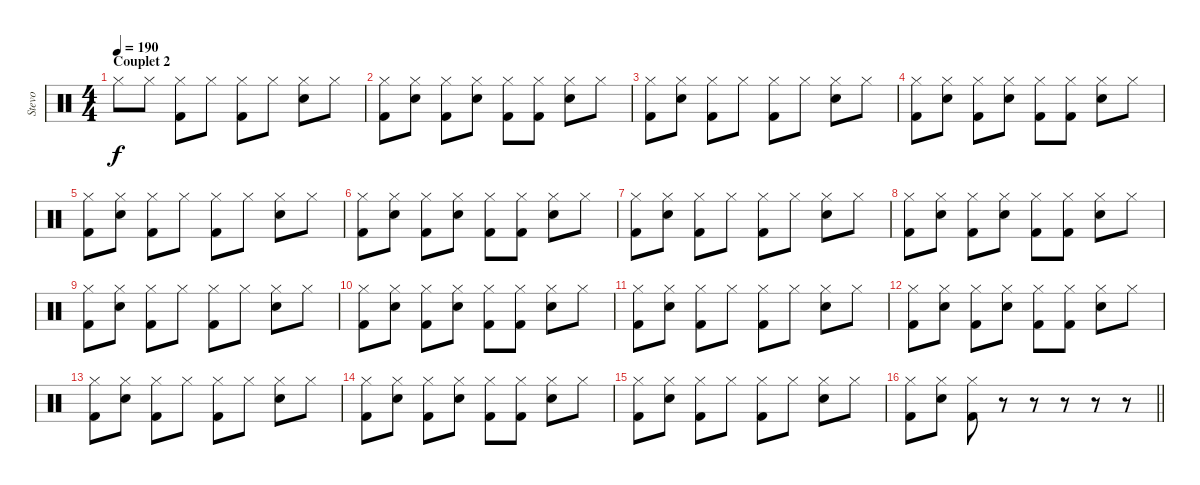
\track ("Stevo" "Stevo") {instrument percussion}
\staff {score}
\articulation defaults
\ts (4 4)
\section ("" "Couplet 2")
\tempo 190
\clef neutral
\ks c "Hi-Hat (closed)".8{dy f} "Hi-Hat (closed)".8
("Hi-Hat (closed)" "Kick (hit) 2").8 "Hi-Hat (closed)".8 ("Hi-Hat (closed)" "Kick (hit) 2").8 "Hi-Hat (closed)".8 ("Hi-Hat (closed)" "Electric Snare (hit)").8 "Hi-Hat (closed)".8 |
("Hi-Hat (closed)" "Kick (hit) 2").8 ("Hi-Hat (closed)" "Electric Snare (hit)").8 ("Hi-Hat (closed)" "Kick (hit) 2").8 ("Hi-Hat (closed)" "Electric Snare (hit)").8 ("Hi-Hat (closed)" "Kick (hit) 2").8 ("Hi-Hat (closed)" "Kick (hit) 2").8 ("Hi-Hat (closed)" "Electric Snare (hit)").8 "Hi-Hat (closed)".8 |
("Hi-Hat (closed)" "Kick (hit) 2").8 ("Hi-Hat (closed)" "Electric Snare (hit)").8 ("Hi-Hat (closed)" "Kick (hit) 2").8 "Hi-Hat (closed)".8 ("Hi-Hat (closed)" "Kick (hit) 2").8 "Hi-Hat (closed)".8 ("Hi-Hat (closed)" "Electric Snare (hit)").8 "Hi-Hat (closed)".8 |
("Hi-Hat (closed)" "Kick (hit) 2").8 ("Hi-Hat (closed)" "Electric Snare (hit)").8 ("Hi-Hat (closed)" "Kick (hit) 2").8 ("Hi-Hat (closed)" "Electric Snare (hit)").8 ("Hi-Hat (closed)" "Kick (hit) 2").8 ("Hi-Hat (closed)" "Kick (hit) 2").8 ("Hi-Hat (closed)" "Electric Snare (hit)").8 "Hi-Hat (closed)".8 |
("Hi-Hat (closed)" "Kick (hit) 2").8 ("Hi-Hat (closed)" "Electric Snare (hit)").8 ("Hi-Hat (closed)" "Kick (hit) 2").8 "Hi-Hat (closed)".8 ("Hi-Hat (closed)" "Kick (hit) 2").8 "Hi-Hat (closed)".8 ("Hi-Hat (closed)" "Electric Snare (hit)").8 "Hi-Hat (closed)".8 |
("Hi-Hat (closed)" "Kick (hit) 2").8 ("Hi-Hat (closed)" "Electric Snare (hit)").8 ("Hi-Hat (closed)" "Kick (hit) 2").8 ("Hi-Hat (closed)" "Electric Snare (hit)").8 ("Hi-Hat (closed)" "Kick (hit) 2").8 ("Hi-Hat (closed)" "Kick (hit) 2").8 ("Hi-Hat (closed)" "Electric Snare (hit)").8 "Hi-Hat (closed)".8 |
("Hi-Hat (closed)" "Kick (hit) 2").8 ("Hi-Hat (closed)" "Electric Snare (hit)").8 ("Hi-Hat (closed)" "Kick (hit) 2").8 "Hi-Hat (closed)".8 ("Hi-Hat (closed)" "Kick (hit) 2").8 "Hi-Hat (closed)".8 ("Hi-Hat (closed)" "Electric Snare (hit)").8 "Hi-Hat (closed)".8 |
("Hi-Hat (closed)" "Kick (hit) 2").8 ("Hi-Hat (closed)" "Electric Snare (hit)").8 ("Hi-Hat (closed)" "Kick (hit) 2").8 ("Hi-Hat (closed)" "Electric Snare (hit)").8 ("Hi-Hat (closed)" "Kick (hit) 2").8 ("Hi-Hat (closed)" "Kick (hit) 2").8 ("Hi-Hat (closed)" "Electric Snare (hit)").8 "Hi-Hat (closed)".8 |
("Hi-Hat (closed)" "Kick (hit) 2").8 ("Hi-Hat (closed)" "Electric Snare (hit)").8 ("Hi-Hat (closed)" "Kick (hit) 2").8 "Hi-Hat (closed)".8 ("Hi-Hat (closed)" "Kick (hit) 2").8 "Hi-Hat (closed)".8 ("Hi-Hat (closed)" "Electric Snare (hit)").8 "Hi-Hat (closed)".8 |
("Hi-Hat (closed)" "Kick (hit) 2").8 ("Hi-Hat (closed)" "Electric Snare (hit)").8 ("Hi-Hat (closed)" "Kick (hit) 2").8 ("Hi-Hat (closed)" "Electric Snare (hit)").8 ("Hi-Hat (closed)" "Kick (hit) 2").8 ("Hi-Hat (closed)" "Kick (hit) 2").8 ("Hi-Hat (closed)" "Electric Snare (hit)").8 "Hi-Hat (closed)".8 |
("Hi-Hat (closed)" "Kick (hit) 2").8 ("Hi-Hat (closed)" "Electric Snare (hit)").8 ("Hi-Hat (closed)" "Kick (hit) 2").8 "Hi-Hat (closed)".8 ("Hi-Hat (closed)" "Kick (hit) 2").8 "Hi-Hat (closed)".8 ("Hi-Hat (closed)" "Electric Snare (hit)").8 "Hi-Hat (closed)".8 |
("Hi-Hat (closed)" "Kick (hit) 2").8 ("Hi-Hat (closed)" "Electric Snare (hit)").8 ("Hi-Hat (closed)" "Kick (hit) 2").8 ("Hi-Hat (closed)" "Electric Snare (hit)").8 ("Hi-Hat (closed)" "Kick (hit) 2").8 ("Hi-Hat (closed)" "Kick (hit) 2").8 ("Hi-Hat (closed)" "Electric Snare (hit)").8 "Hi-Hat (closed)".8 |
("Hi-Hat (closed)" "Kick (hit) 2").8 ("Hi-Hat (closed)" "Electric Snare (hit)").8 ("Hi-Hat (closed)" "Kick (hit) 2").8 "Hi-Hat (closed)".8 ("Hi-Hat (closed)" "Kick (hit) 2").8 "Hi-Hat (closed)".8 ("Hi-Hat (closed)" "Electric Snare (hit)").8 "Hi-Hat (closed)".8 |
("Hi-Hat (closed)" "Kick (hit) 2").8 ("Hi-Hat (closed)" "Electric Snare (hit)").8 ("Hi-Hat (closed)" "Kick (hit) 2").8 ("Hi-Hat (closed)" "Electric Snare (hit)").8 ("Hi-Hat (closed)" "Kick (hit) 2").8 ("Hi-Hat (closed)" "Kick (hit) 2").8 ("Hi-Hat (closed)" "Electric Snare (hit)").8 "Hi-Hat (closed)".8 |
("Hi-Hat (closed)" "Kick (hit) 2").8 ("Hi-Hat (closed)" "Electric Snare (hit)").8 ("Hi-Hat (closed)" "Kick (hit) 2").8 "Hi-Hat (closed)".8 ("Hi-Hat (closed)" "Kick (hit) 2").8 "Hi-Hat (closed)".8 ("Hi-Hat (closed)" "Electric Snare (hit)").8 "Hi-Hat (closed)".8 |
\barLineRight lightlight
("Hi-Hat (closed)" "Kick (hit) 2").8 ("Hi-Hat (closed)" "Electric Snare (hit)").8 ("Hi-Hat (closed)" "Kick (hit) 2").8 r.8 r.8 r.8 r.8 r.8
